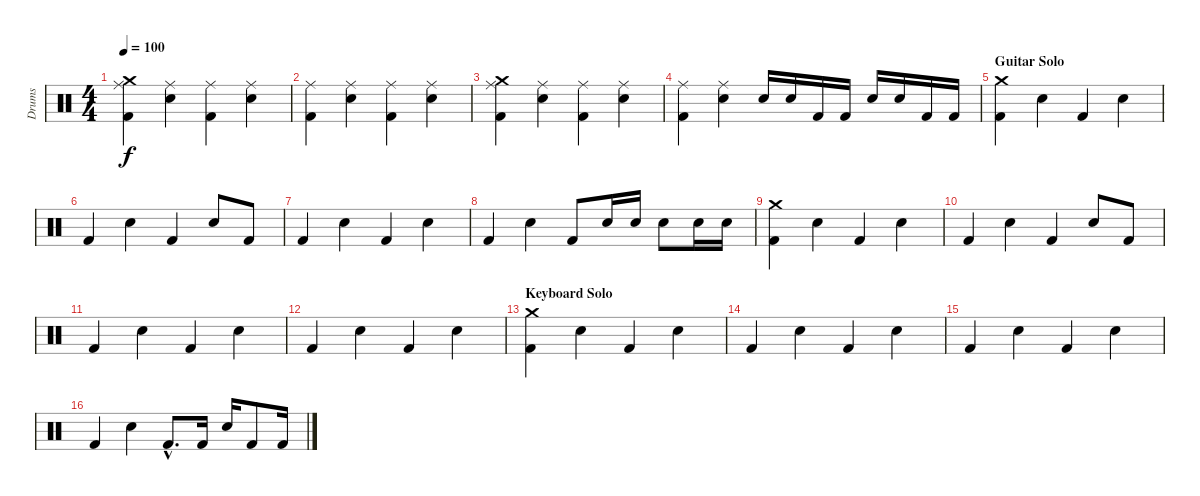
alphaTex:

\track ("Drums" "Drums") {instrument percussion}
\staff {score}
\articulation defaults
\ts (4 4)
\tempo 100
\clef neutral
\ks c
("Kick (hit) 2" "Ride (middle)" "Crash medium (hit)").4{dy f} ("Snare (hit) 2" "Ride (middle)").4 ("Kick (hit) 2" "Ride (middle)").4 ("Snare (hit) 2" "Ride (middle)").4 |
("Kick (hit) 2" "Ride (middle)").4 ("Snare (hit) 2" "Ride (middle)").4 ("Kick (hit) 2" "Ride (middle)").4 ("Snare (hit) 2" "Ride (middle)").4 |
("Kick (hit) 2" "Ride (middle)" "Crash medium (hit)").4 ("Snare (hit) 2" "Ride (middle)").4 ("Kick (hit) 2" "Ride (middle)").4 ("Snare (hit) 2" "Ride (middle)").4 |
("Kick (hit) 2" "Ride (middle)").4 ("Snare (hit) 2" "Ride (middle)").4 "Snare (hit) 2".16 "Snare (hit) 2".16 "Kick (hit) 2".16 "Kick (hit) 2".16 "Snare (hit) 2".16 "Snare (hit) 2".16 "Kick (hit) 2".16 "Kick (hit) 2".16 |
\section ("" "Guitar Solo")
("Kick (hit) 2" "Crash medium (hit)").4 "Snare (hit) 2".4 "Kick (hit) 2".4 "Snare (hit) 2".4 |
"Kick (hit) 2".4 "Snare (hit) 2".4 "Kick (hit) 2".4 "Snare (hit) 2".8 "Kick (hit) 2".8 |
"Kick (hit) 2".4 "Snare (hit) 2".4 "Kick (hit) 2".4 "Snare (hit) 2".4 |
"Kick (hit) 2".4 "Snare (hit) 2".4 "Kick (hit) 2".8 "Snare (hit) 2".16 "Snare (hit) 2".16 "Snare (hit) 2".8 "Snare (hit) 2".16 "Snare (hit) 2".16 |
("Kick (hit) 2" "Crash medium (hit)").4 "Snare (hit) 2".4 "Kick (hit) 2".4 "Snare (hit) 2".4 |
"Kick (hit) 2".4 "Snare (hit) 2".4 "Kick (hit) 2".4 "Snare (hit) 2".8 "Kick (hit) 2".8 |
"Kick (hit) 2".4 "Snare (hit) 2".4 "Kick (hit) 2".4 "Snare (hit) 2".4 |
"Kick (hit) 2".4 "Snare (hit) 2".4 "Kick (hit) 2".4 "Snare (hit) 2".4 |
\section ("" "Keyboard Solo")
("Kick (hit) 2" "Crash medium (hit)").4 "Snare (hit) 2".4 "Kick (hit) 2".4 "Snare (hit) 2".4 |
"Kick (hit) 2".4 "Snare (hit) 2".4 "Kick (hit) 2".4 "Snare (hit) 2".4 |
"Kick (hit) 2".4 "Snare (hit) 2".4 "Kick (hit) 2".4 "Snare (hit) 2".4 |
"Kick (hit) 2".4 "Snare (hit) 2".4 "Kick (hit) 2"{hac}.8{d} "Kick (hit) 2".16 "Snare (hit) 2".16 "Kick (hit) 2".8 "Kick (hit) 2".16
